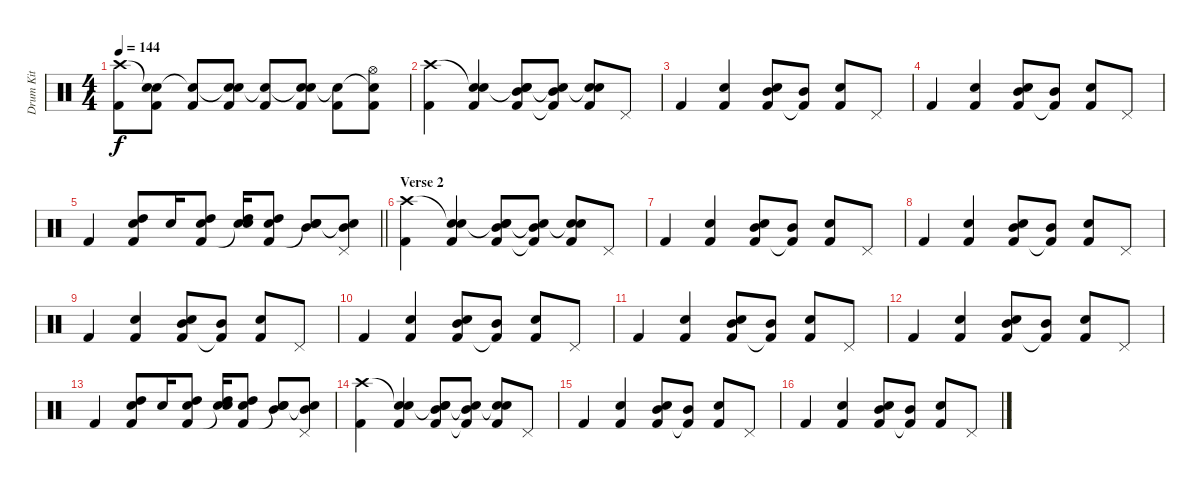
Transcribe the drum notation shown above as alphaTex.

\track ("Drum Kit" "Drum Kit") {instrument percussion}
\staff {score}
\articulation defaults
\ts (4 4)
\tempo 144
\clef neutral
\ks c
("Kick (hit) 2" "Crash high (hit)").8{dy f} ("Kick (hit) 2" "Snare (hit)"{t} "Electric Snare (hit)").8 ("Kick (hit) 2" "Snare (hit)"{t}).8 ("Kick (hit) 2" "Snare (hit)"{t} "Electric Snare (hit)").8 ("Kick (hit) 2" "Snare (hit)"{t}).8 ("Kick (hit) 2" "Snare (hit)"{t} "Electric Snare (hit)").8 ("Kick (hit) 2" "Snare (hit)"{t}).8 ("Kick (hit) 2" "Snare (hit)"{t} "Hi-Hat (open)").8 |
("Kick (hit) 2" "Crash high (hit)").4 ("Kick (hit) 2" "Snare (hit)"{t} "Snare (hit) 2").4 ("Kick (hit) 2" "Snare (hit)"{t} "Electric Snare (hit)" "Mid Tom (hit)").8 ("Kick (hit) 2"{t} "Snare (hit)"{t} "Mid Tom (hit)").8 ("Kick (hit) 2" "Snare (hit)"{t} "Snare (hit) 2").8 "Pedal Hi-Hat (hit)".8 |
"Kick (hit) 2".4 ("Kick (hit) 2" "Snare (hit) 2").4 ("Kick (hit) 2" "Electric Snare (hit)" "Mid Tom (hit)").8 ("Kick (hit) 2"{t} "Mid Tom (hit)").8 ("Kick (hit) 2" "Snare (hit) 2").8 "Pedal Hi-Hat (hit)".8 |
"Kick (hit) 2".4 ("Kick (hit) 2" "Snare (hit) 2").4 ("Kick (hit) 2" "Electric Snare (hit)" "Mid Tom (hit)").8 ("Kick (hit) 2"{t} "Mid Tom (hit)").8 ("Kick (hit) 2" "Snare (hit) 2").8 "Pedal Hi-Hat (hit)".8 |
\barLineRight lightlight "Kick (hit) 2".4
("Kick (hit) 2" "High Tom (hit)" "Snare (hit) 2").8 "Snare (hit) 2".16 ("Kick (hit) 2" "High Tom (hit)" "Snare (hit) 2").8 ("Snare (hit)"{t} "High Tom (hit)" "Snare (hit) 2").16 ("Kick (hit) 2" "High Tom (hit)" "Snare (hit) 2").8 ("Snare (hit)"{t} "Mid Tom (hit)" "Snare (hit) 2").8 ("Snare (hit)"{t} "Mid Tom (hit)" "Pedal Hi-Hat (hit)").8 |
\section ("" "Verse 2")
("Kick (hit) 2" "Crash high (hit)").4 ("Kick (hit) 2" "Snare (hit)"{t} "Snare (hit) 2").4 ("Kick (hit) 2" "Snare (hit)"{t} "Electric Snare (hit)" "Mid Tom (hit)").8 ("Kick (hit) 2"{t} "Snare (hit)"{t} "Mid Tom (hit)").8 ("Kick (hit) 2" "Snare (hit)"{t} "Snare (hit) 2").8 "Pedal Hi-Hat (hit)".8 |
"Kick (hit) 2".4 ("Kick (hit) 2" "Snare (hit) 2").4 ("Kick (hit) 2" "Electric Snare (hit)" "Mid Tom (hit)").8 ("Kick (hit) 2"{t} "Mid Tom (hit)").8 ("Kick (hit) 2" "Snare (hit) 2").8 "Pedal Hi-Hat (hit)".8 |
"Kick (hit) 2".4 ("Kick (hit) 2" "Snare (hit) 2").4 ("Kick (hit) 2" "Electric Snare (hit)" "Mid Tom (hit)").8 ("Kick (hit) 2"{t} "Mid Tom (hit)").8 ("Kick (hit) 2" "Snare (hit) 2").8 "Pedal Hi-Hat (hit)".8 |
"Kick (hit) 2".4 ("Kick (hit) 2" "Snare (hit) 2").4 ("Kick (hit) 2" "Electric Snare (hit)" "Mid Tom (hit)").8 ("Kick (hit) 2"{t} "Mid Tom (hit)").8 ("Kick (hit) 2" "Snare (hit) 2").8 "Pedal Hi-Hat (hit)".8 |
"Kick (hit) 2".4 ("Kick (hit) 2" "Snare (hit) 2").4 ("Kick (hit) 2" "Electric Snare (hit)" "Mid Tom (hit)").8 ("Kick (hit) 2"{t} "Mid Tom (hit)").8 ("Kick (hit) 2" "Snare (hit) 2").8 "Pedal Hi-Hat (hit)".8 |
"Kick (hit) 2".4 ("Kick (hit) 2" "Snare (hit) 2").4 ("Kick (hit) 2" "Electric Snare (hit)" "Mid Tom (hit)").8 ("Kick (hit) 2"{t} "Mid Tom (hit)").8 ("Kick (hit) 2" "Snare (hit) 2").8 "Pedal Hi-Hat (hit)".8 |
"Kick (hit) 2".4 ("Kick (hit) 2" "Snare (hit) 2").4 ("Kick (hit) 2" "Electric Snare (hit)" "Mid Tom (hit)").8 ("Kick (hit) 2"{t} "Mid Tom (hit)").8 ("Kick (hit) 2" "Snare (hit) 2").8 "Pedal Hi-Hat (hit)".8 |
"Kick (hit) 2".4 ("Kick (hit) 2" "High Tom (hit)" "Snare (hit) 2").8 "Snare (hit) 2".16 ("Kick (hit) 2" "High Tom (hit)" "Snare (hit) 2").8 ("Snare (hit)"{t} "High Tom (hit)" "Snare (hit) 2").16 ("Kick (hit) 2" "High Tom (hit)" "Snare (hit) 2").8 ("Snare (hit)"{t} "Mid Tom (hit)" "Snare (hit) 2").8 ("Snare (hit)"{t} "Mid Tom (hit)" "Pedal Hi-Hat (hit)").8 |
("Kick (hit) 2" "Crash high (hit)").4 ("Kick (hit) 2" "Snare (hit)"{t} "Snare (hit) 2").4 ("Kick (hit) 2" "Snare (hit)"{t} "Electric Snare (hit)" "Mid Tom (hit)").8 ("Kick (hit) 2"{t} "Snare (hit)"{t} "Mid Tom (hit)").8 ("Kick (hit) 2" "Snare (hit)"{t} "Snare (hit) 2").8 "Pedal Hi-Hat (hit)".8 |
"Kick (hit) 2".4 ("Kick (hit) 2" "Snare (hit) 2").4 ("Kick (hit) 2" "Electric Snare (hit)" "Mid Tom (hit)").8 ("Kick (hit) 2"{t} "Mid Tom (hit)").8 ("Kick (hit) 2" "Snare (hit) 2").8 "Pedal Hi-Hat (hit)".8 |
"Kick (hit) 2".4 ("Kick (hit) 2" "Snare (hit) 2").4 ("Kick (hit) 2" "Electric Snare (hit)" "Mid Tom (hit)").8 ("Kick (hit) 2"{t} "Mid Tom (hit)").8 ("Kick (hit) 2" "Snare (hit) 2").8 "Pedal Hi-Hat (hit)".8
